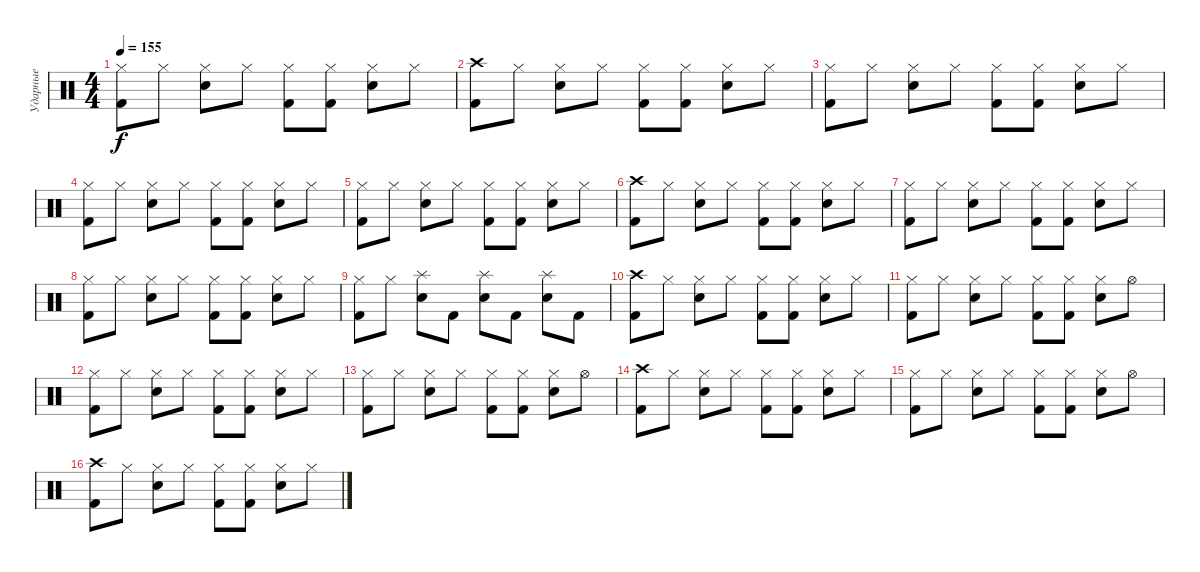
\track ("Ударные" "Ударные") {instrument percussion}
\staff {score}
\articulation defaults
\ts (4 4)
\tempo 155
\clef neutral
\ks c
("Hi-Hat (closed)" "Kick (hit) 2").8{dy f} "Hi-Hat (closed)".8 ("Hi-Hat (closed)" "Electric Snare (hit)").8 "Hi-Hat (closed)".8 ("Hi-Hat (closed)" "Kick (hit) 2").8 ("Hi-Hat (closed)" "Kick (hit) 2").8 ("Hi-Hat (closed)" "Electric Snare (hit)").8 "Hi-Hat (closed)".8 |
("Crash high (hit)" "Kick (hit) 2").8 "Hi-Hat (closed)".8 ("Hi-Hat (closed)" "Electric Snare (hit)").8 "Hi-Hat (closed)".8 ("Hi-Hat (closed)" "Kick (hit) 2").8 ("Hi-Hat (closed)" "Kick (hit) 2").8 ("Hi-Hat (closed)" "Electric Snare (hit)").8 "Hi-Hat (closed)".8 |
("Hi-Hat (closed)" "Kick (hit) 2").8 "Hi-Hat (closed)".8 ("Hi-Hat (closed)" "Electric Snare (hit)").8 "Hi-Hat (closed)".8 ("Hi-Hat (closed)" "Kick (hit) 2").8 ("Hi-Hat (closed)" "Kick (hit) 2").8 ("Hi-Hat (closed)" "Electric Snare (hit)").8 "Hi-Hat (closed)".8 |
("Hi-Hat (closed)" "Kick (hit) 2").8 "Hi-Hat (closed)".8 ("Hi-Hat (closed)" "Electric Snare (hit)").8 "Hi-Hat (closed)".8 ("Hi-Hat (closed)" "Kick (hit) 2").8 ("Hi-Hat (closed)" "Kick (hit) 2").8 ("Hi-Hat (closed)" "Electric Snare (hit)").8 "Hi-Hat (closed)".8 |
("Hi-Hat (closed)" "Kick (hit) 2").8 "Hi-Hat (closed)".8 ("Hi-Hat (closed)" "Electric Snare (hit)").8 "Hi-Hat (closed)".8 ("Hi-Hat (closed)" "Kick (hit) 2").8 ("Hi-Hat (closed)" "Kick (hit) 2").8 ("Hi-Hat (closed)" "Electric Snare (hit)").8 "Hi-Hat (closed)".8 |
("Crash high (hit)" "Kick (hit) 2").8 "Hi-Hat (closed)".8 ("Hi-Hat (closed)" "Electric Snare (hit)").8 "Hi-Hat (closed)".8 ("Hi-Hat (closed)" "Kick (hit) 2").8 ("Hi-Hat (closed)" "Kick (hit) 2").8 ("Hi-Hat (closed)" "Electric Snare (hit)").8 "Hi-Hat (closed)".8 |
("Hi-Hat (closed)" "Kick (hit) 2").8 "Hi-Hat (closed)".8 ("Hi-Hat (closed)" "Electric Snare (hit)").8 "Hi-Hat (closed)".8 ("Hi-Hat (closed)" "Kick (hit) 2").8 ("Hi-Hat (closed)" "Kick (hit) 2").8 ("Hi-Hat (closed)" "Electric Snare (hit)").8 "Hi-Hat (closed)".8 |
("Hi-Hat (closed)" "Kick (hit) 2").8 "Hi-Hat (closed)".8 ("Hi-Hat (closed)" "Electric Snare (hit)").8 "Hi-Hat (closed)".8 ("Hi-Hat (closed)" "Kick (hit) 2").8 ("Hi-Hat (closed)" "Kick (hit) 2").8 ("Hi-Hat (closed)" "Electric Snare (hit)").8 "Hi-Hat (closed)".8 |
("Hi-Hat (closed)" "Kick (hit) 2").8 "Hi-Hat (closed)".8 ("Splash (hit)" "Electric Snare (hit)").8 "Kick (hit) 2".8 ("Splash (hit)" "Electric Snare (hit)").8 "Kick (hit) 2".8 ("Splash (hit)" "Electric Snare (hit)").8 "Kick (hit) 2".8 |
("Crash high (hit)" "Kick (hit) 2").8 "Hi-Hat (closed)".8 ("Hi-Hat (closed)" "Electric Snare (hit)").8 "Hi-Hat (closed)".8 ("Hi-Hat (closed)" "Kick (hit) 2").8 ("Hi-Hat (closed)" "Kick (hit) 2").8 ("Hi-Hat (closed)" "Electric Snare (hit)").8 "Hi-Hat (closed)".8 |
("Hi-Hat (closed)" "Kick (hit) 2").8 "Hi-Hat (closed)".8 ("Hi-Hat (closed)" "Electric Snare (hit)").8 "Hi-Hat (closed)".8 ("Hi-Hat (closed)" "Kick (hit) 2").8 ("Hi-Hat (closed)" "Kick (hit) 2").8 ("Hi-Hat (closed)" "Electric Snare (hit)").8 "Hi-Hat (open)".8 |
("Hi-Hat (closed)" "Kick (hit) 2").8 "Hi-Hat (closed)".8 ("Hi-Hat (closed)" "Electric Snare (hit)").8 "Hi-Hat (closed)".8 ("Hi-Hat (closed)" "Kick (hit) 2").8 ("Hi-Hat (closed)" "Kick (hit) 2").8 ("Hi-Hat (closed)" "Electric Snare (hit)").8 "Hi-Hat (closed)".8 |
("Hi-Hat (closed)" "Kick (hit) 2").8 "Hi-Hat (closed)".8 ("Hi-Hat (closed)" "Electric Snare (hit)").8 "Hi-Hat (closed)".8 ("Hi-Hat (closed)" "Kick (hit) 2").8 ("Hi-Hat (closed)" "Kick (hit) 2").8 ("Hi-Hat (closed)" "Electric Snare (hit)").8 "Hi-Hat (open)".8 |
("Crash high (hit)" "Kick (hit) 2").8 "Hi-Hat (closed)".8 ("Hi-Hat (closed)" "Electric Snare (hit)").8 "Hi-Hat (closed)".8 ("Hi-Hat (closed)" "Kick (hit) 2").8 ("Hi-Hat (closed)" "Kick (hit) 2").8 ("Hi-Hat (closed)" "Electric Snare (hit)").8 "Hi-Hat (closed)".8 |
("Hi-Hat (closed)" "Kick (hit) 2").8 "Hi-Hat (closed)".8 ("Hi-Hat (closed)" "Electric Snare (hit)").8 "Hi-Hat (closed)".8 ("Hi-Hat (closed)" "Kick (hit) 2").8 ("Hi-Hat (closed)" "Kick (hit) 2").8 ("Hi-Hat (closed)" "Electric Snare (hit)").8 "Hi-Hat (open)".8 |
("Crash high (hit)" "Kick (hit) 2").8 "Hi-Hat (closed)".8 ("Hi-Hat (closed)" "Electric Snare (hit)").8 "Hi-Hat (closed)".8 ("Hi-Hat (closed)" "Kick (hit) 2").8 ("Hi-Hat (closed)" "Kick (hit) 2").8 ("Hi-Hat (closed)" "Electric Snare (hit)").8 "Hi-Hat (closed)".8
